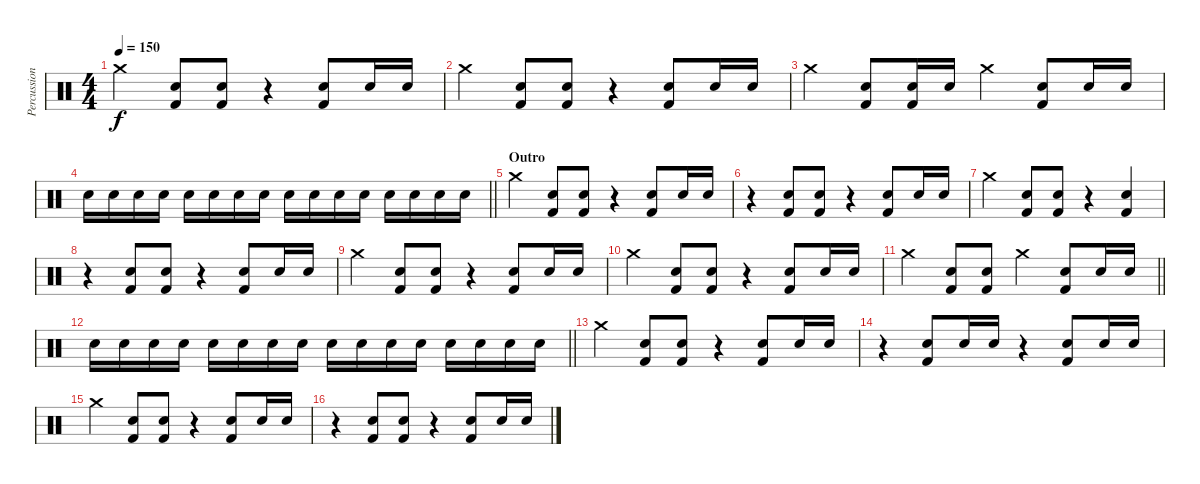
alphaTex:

\track ("Percussion" "Percussion") {instrument percussion}
\staff {score}
\articulation defaults
\ts (4 4)
\tempo 150
\clef neutral
\ks c "Crash medium (hit)".4{dy f}
("Snare (hit) 2" "Kick (hit) 2").8 ("Snare (hit) 2" "Kick (hit) 2").8 r.4 ("Snare (hit) 2" "Kick (hit) 2").8 "Snare (hit) 2".16 "Snare (hit) 2".16 |
"Crash medium (hit)".4 ("Snare (hit) 2" "Kick (hit) 2").8 ("Snare (hit) 2" "Kick (hit) 2").8 r.4 ("Snare (hit) 2" "Kick (hit) 2").8 "Snare (hit) 2".16 "Snare (hit) 2".16 |
"Crash medium (hit)".4 ("Snare (hit) 2" "Kick (hit) 2").8 ("Snare (hit) 2" "Kick (hit) 2").16 "Snare (hit) 2".16 "Crash medium (hit)".4 ("Snare (hit) 2" "Kick (hit) 2").8 "Snare (hit) 2".16 "Snare (hit) 2".16 |
\barLineRight lightlight "Electric Snare (hit)".16 "Electric Snare (hit)".16 "Electric Snare (hit)".16 "Electric Snare (hit)".16 "Electric Snare (hit)".16 "Electric Snare (hit)".16 "Electric Snare (hit)".16 "Electric Snare (hit)".16 "Snare (hit) 2".16 "Snare (hit) 2".16 "Snare (hit) 2".16 "Snare (hit) 2".16 "Snare (hit) 2".16 "Snare (hit) 2".16 "Snare (hit) 2".16 "Snare (hit) 2".16
|
\section ("" "Outro")
"Crash medium (hit)".4 ("Snare (hit) 2" "Kick (hit) 2").8 ("Snare (hit) 2" "Kick (hit) 2").8 r.4 ("Snare (hit) 2" "Kick (hit) 2").8 "Snare (hit) 2".16 "Snare (hit) 2".16 |
r.4 ("Snare (hit) 2" "Kick (hit) 2").8 ("Snare (hit) 2" "Kick (hit) 2").8 r.4 ("Snare (hit) 2" "Kick (hit) 2").8 "Snare (hit) 2".16 "Snare (hit) 2".16 |
"Crash medium (hit)".4 ("Snare (hit) 2" "Kick (hit) 2").8 ("Snare (hit) 2" "Kick (hit) 2").8 r.4 ("Snare (hit) 2" "Kick (hit) 2").4 |
r.4 ("Snare (hit) 2" "Kick (hit) 2").8 ("Snare (hit) 2" "Kick (hit) 2").8 r.4 ("Snare (hit) 2" "Kick (hit) 2").8 "Snare (hit) 2".16 "Snare (hit) 2".16 |
"Crash medium (hit)".4 ("Snare (hit) 2" "Kick (hit) 2").8 ("Snare (hit) 2" "Kick (hit) 2").8 r.4 ("Snare (hit) 2" "Kick (hit) 2").8 "Snare (hit) 2".16 "Snare (hit) 2".16 |
"Crash medium (hit)".4 ("Snare (hit) 2" "Kick (hit) 2").8 ("Snare (hit) 2" "Kick (hit) 2").8 r.4 ("Snare (hit) 2" "Kick (hit) 2").8 "Snare (hit) 2".16 "Snare (hit) 2".16 |
\barLineRight lightlight "Crash medium (hit)".4
("Snare (hit) 2" "Kick (hit) 2").8 ("Snare (hit) 2" "Kick (hit) 2").8 "Crash medium (hit)".4 ("Snare (hit) 2" "Kick (hit) 2").8 "Snare (hit) 2".16 "Snare (hit) 2".16 |
\barLineRight lightlight "Electric Snare (hit)".16 "Electric Snare (hit)".16 "Electric Snare (hit)".16 "Electric Snare (hit)".16 "Electric Snare (hit)".16 "Electric Snare (hit)".16 "Electric Snare (hit)".16 "Electric Snare (hit)".16 "Snare (hit) 2".16 "Snare (hit) 2".16 "Snare (hit) 2".16 "Snare (hit) 2".16 "Snare (hit) 2".16 "Snare (hit) 2".16 "Snare (hit) 2".16 "Snare (hit) 2".16
|
"Crash medium (hit)".4 ("Snare (hit) 2" "Kick (hit) 2").8 ("Snare (hit) 2" "Kick (hit) 2").8 r.4 ("Snare (hit) 2" "Kick (hit) 2").8 "Snare (hit) 2".16 "Snare (hit) 2".16 |
r.4 ("Snare (hit) 2" "Kick (hit) 2").8 "Snare (hit) 2".16 "Snare (hit) 2".16 r.4 ("Snare (hit) 2" "Kick (hit) 2").8 "Snare (hit) 2".16 "Snare (hit) 2".16 |
"Crash medium (hit)".4 ("Snare (hit) 2" "Kick (hit) 2").8 ("Snare (hit) 2" "Kick (hit) 2").8 r.4 ("Snare (hit) 2" "Kick (hit) 2").8 "Snare (hit) 2".16 "Snare (hit) 2".16 |
r.4 ("Snare (hit) 2" "Kick (hit) 2").8 ("Snare (hit) 2" "Kick (hit) 2").8 r.4 ("Snare (hit) 2" "Kick (hit) 2").8 "Snare (hit) 2".16 "Snare (hit) 2".16
